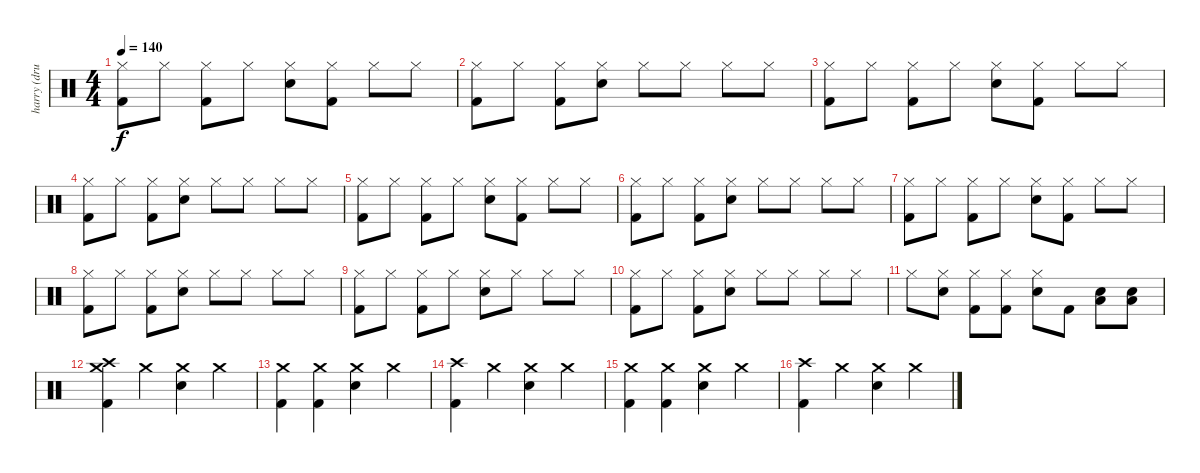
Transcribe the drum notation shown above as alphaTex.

\track ("harry (drum)" "harry (dru") {instrument percussion}
\staff {score}
\articulation defaults
\ts (4 4)
\tempo 140
\clef neutral
\ks c
("Hi-Hat (closed)" "Kick (hit) 2").8{dy f} "Hi-Hat (closed)".8 ("Hi-Hat (closed)" "Kick (hit) 2").8 "Hi-Hat (closed)".8 ("Hi-Hat (closed)" "Snare (hit) 2").8 ("Hi-Hat (closed)" "Kick (hit) 2").8 "Hi-Hat (closed)".8 "Hi-Hat (closed)".8 |
("Hi-Hat (closed)" "Kick (hit) 2").8 "Hi-Hat (closed)".8 ("Hi-Hat (closed)" "Kick (hit) 2").8 ("Hi-Hat (closed)" "Snare (hit) 2").8 "Hi-Hat (closed)".8 "Hi-Hat (closed)".8 "Hi-Hat (closed)".8 "Hi-Hat (closed)".8 |
("Hi-Hat (closed)" "Kick (hit) 2").8 "Hi-Hat (closed)".8 ("Hi-Hat (closed)" "Kick (hit) 2").8 "Hi-Hat (closed)".8 ("Hi-Hat (closed)" "Snare (hit) 2").8 ("Hi-Hat (closed)" "Kick (hit) 2").8 "Hi-Hat (closed)".8 "Hi-Hat (closed)".8 |
("Hi-Hat (closed)" "Kick (hit) 2").8 "Hi-Hat (closed)".8 ("Hi-Hat (closed)" "Kick (hit) 2").8 ("Hi-Hat (closed)" "Snare (hit) 2").8 "Hi-Hat (closed)".8 "Hi-Hat (closed)".8 "Hi-Hat (closed)".8 "Hi-Hat (closed)".8 |
("Hi-Hat (closed)" "Kick (hit) 2").8 "Hi-Hat (closed)".8 ("Hi-Hat (closed)" "Kick (hit) 2").8 "Hi-Hat (closed)".8 ("Hi-Hat (closed)" "Snare (hit) 2").8 ("Hi-Hat (closed)" "Kick (hit) 2").8 "Hi-Hat (closed)".8 "Hi-Hat (closed)".8 |
("Hi-Hat (closed)" "Kick (hit) 2").8 "Hi-Hat (closed)".8 ("Hi-Hat (closed)" "Kick (hit) 2").8 ("Hi-Hat (closed)" "Snare (hit) 2").8 "Hi-Hat (closed)".8 "Hi-Hat (closed)".8 "Hi-Hat (closed)".8 "Hi-Hat (closed)".8 |
("Hi-Hat (closed)" "Kick (hit) 2").8 "Hi-Hat (closed)".8 ("Hi-Hat (closed)" "Kick (hit) 2").8 "Hi-Hat (closed)".8 ("Hi-Hat (closed)" "Snare (hit) 2").8 ("Hi-Hat (closed)" "Kick (hit) 2").8 "Hi-Hat (closed)".8 "Hi-Hat (closed)".8 |
("Hi-Hat (closed)" "Kick (hit) 2").8 "Hi-Hat (closed)".8 ("Hi-Hat (closed)" "Kick (hit) 2").8 ("Hi-Hat (closed)" "Snare (hit) 2").8 "Hi-Hat (closed)".8 "Hi-Hat (closed)".8 "Hi-Hat (closed)".8 "Hi-Hat (closed)".8 |
("Hi-Hat (closed)" "Kick (hit) 2").8 "Hi-Hat (closed)".8 ("Hi-Hat (closed)" "Kick (hit) 2").8 "Hi-Hat (closed)".8 ("Hi-Hat (closed)" "Snare (hit) 2").8 "Hi-Hat (closed)".8 "Hi-Hat (closed)".8 "Hi-Hat (closed)".8 |
("Hi-Hat (closed)" "Kick (hit) 2").8 "Hi-Hat (closed)".8 ("Hi-Hat (closed)" "Kick (hit) 2").8 ("Hi-Hat (closed)" "Snare (hit) 2").8 "Hi-Hat (closed)".8 "Hi-Hat (closed)".8 "Hi-Hat (closed)".8 "Hi-Hat (closed)".8 |
"Hi-Hat (closed)".8 ("Hi-Hat (closed)" "Snare (hit) 2").8 ("Hi-Hat (closed)" "Kick (hit) 2").8 ("Hi-Hat (closed)" "Kick (hit) 2").8 ("Hi-Hat (closed)" "Snare (hit) 2").8 "Kick (hit) 2".8 ("Snare (hit) 2" "Low Floor Tom (hit)").8 ("Snare (hit) 2" "Low Floor Tom (hit)").8 |
("Kick (hit) 2" "Crash high (hit)" "Crash medium (hit)").4 "Crash medium (hit)".4 ("Snare (hit) 2" "Crash medium (hit)").4 "Crash medium (hit)".4 |
("Kick (hit) 2" "Crash medium (hit)").4 ("Kick (hit) 2" "Crash medium (hit)").4 ("Snare (hit) 2" "Crash medium (hit)").4 "Crash medium (hit)".4 |
("Kick (hit) 2" "Crash high (hit)").4 "Crash medium (hit)".4 ("Snare (hit) 2" "Crash medium (hit)").4 "Crash medium (hit)".4 |
("Kick (hit) 2" "Crash medium (hit)").4 ("Kick (hit) 2" "Crash medium (hit)").4 ("Snare (hit) 2" "Crash medium (hit)").4 "Crash medium (hit)".4 |
("Kick (hit) 2" "Crash high (hit)").4 "Crash medium (hit)".4 ("Snare (hit) 2" "Crash medium (hit)").4 "Crash medium (hit)".4
